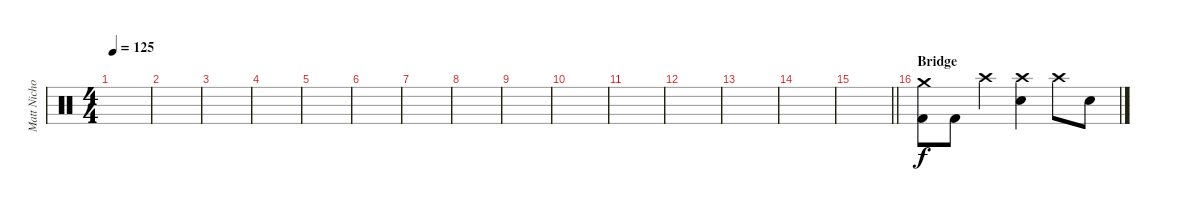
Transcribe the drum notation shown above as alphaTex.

\track ("Matt Nicholls" "Matt Nicho") {instrument percussion}
\staff {score}
\articulation defaults
\ts (4 4)
\tempo 125
\clef neutral
\ks c
|
|
|
|
|
|
|
|
|
|
|
|
|
|
\barLineRight lightlight
|
\section ("" "Bridge")
("Crash medium (hit)" "Kick (hit) 2").8{volume 16} "Kick (hit) 2".8 "Crash high (hit)".4 ("Crash high (hit)" "Electric Snare (hit)").4 "Crash high (hit)".8 "Electric Snare (hit)".8
